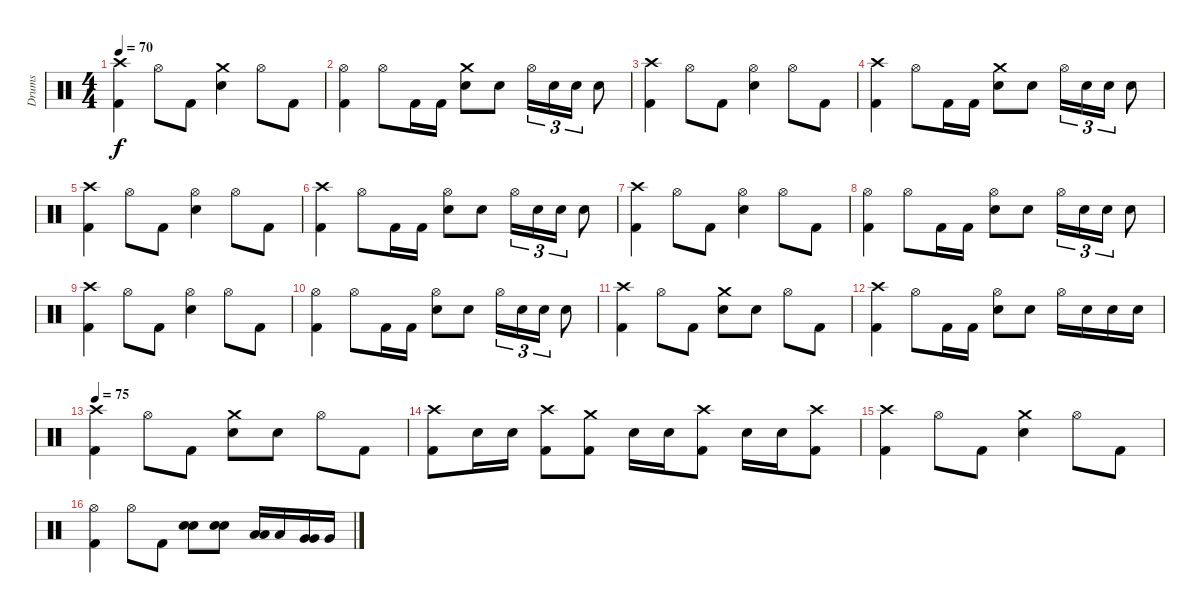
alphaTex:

\track ("Drums" "Drums") {instrument percussion}
\staff {score}
\articulation defaults
\ts (4 4)
\tempo 70
\clef neutral
\ks c
("Crash high (hit)" "Kick (hit) 2").4{dy f} "Hi-Hat (open)".8 "Kick (hit) 2".8 ("Crash medium (hit)" "Electric Snare (hit)").4 "Hi-Hat (open)".8 "Kick (hit) 2".8 |
("Hi-Hat (open)" "Kick (hit) 2").4 "Hi-Hat (open)".8 "Kick (hit) 2".16 "Kick (hit) 2".16 ("Crash medium (hit)" "Electric Snare (hit)").8 "Electric Snare (hit)".8 "Hi-Hat (open)".16{tu (3 2)} "Electric Snare (hit)".16{tu (3 2)} "Electric Snare (hit)".16{tu (3 2)} "Electric Snare (hit)".8 |
("Crash high (hit)" "Kick (hit) 2").4 "Hi-Hat (open)".8 "Kick (hit) 2".8 ("Hi-Hat (open)" "Electric Snare (hit)").4 "Hi-Hat (open)".8 "Kick (hit) 2".8 |
("Crash high (hit)" "Kick (hit) 2").4 "Hi-Hat (open)".8 "Kick (hit) 2".16 "Kick (hit) 2".16 ("Crash medium (hit)" "Electric Snare (hit)").8 "Electric Snare (hit)".8 "Hi-Hat (open)".16{tu (3 2)} "Electric Snare (hit)".16{tu (3 2)} "Electric Snare (hit)".16{tu (3 2)} "Electric Snare (hit)".8 |
("Crash high (hit)" "Kick (hit) 2").4 "Hi-Hat (open)".8 "Kick (hit) 2".8 ("Hi-Hat (open)" "Electric Snare (hit)").4 "Hi-Hat (open)".8 "Kick (hit) 2".8 |
("Crash high (hit)" "Kick (hit) 2").4 "Hi-Hat (open)".8 "Kick (hit) 2".16 "Kick (hit) 2".16 ("Hi-Hat (open)" "Electric Snare (hit)").8 "Electric Snare (hit)".8 "Hi-Hat (open)".16{tu (3 2)} "Electric Snare (hit)".16{tu (3 2)} "Electric Snare (hit)".16{tu (3 2)} "Electric Snare (hit)".8 |
("Crash high (hit)" "Kick (hit) 2").4 "Hi-Hat (open)".8 "Kick (hit) 2".8 ("Hi-Hat (open)" "Electric Snare (hit)").4 "Hi-Hat (open)".8 "Kick (hit) 2".8 |
("Hi-Hat (open)" "Kick (hit) 2").4 "Hi-Hat (open)".8 "Kick (hit) 2".16 "Kick (hit) 2".16 ("Hi-Hat (open)" "Electric Snare (hit)").8 "Electric Snare (hit)".8 "Hi-Hat (open)".16{tu (3 2)} "Electric Snare (hit)".16{tu (3 2)} "Electric Snare (hit)".16{tu (3 2)} "Electric Snare (hit)".8 |
("Crash high (hit)" "Kick (hit) 2").4 "Hi-Hat (open)".8 "Kick (hit) 2".8 ("Hi-Hat (open)" "Electric Snare (hit)").4 "Hi-Hat (open)".8 "Kick (hit) 2".8 |
("Hi-Hat (open)" "Kick (hit) 2").4 "Hi-Hat (open)".8 "Kick (hit) 2".16 "Kick (hit) 2".16 ("Hi-Hat (open)" "Electric Snare (hit)").8 "Electric Snare (hit)".8 "Hi-Hat (open)".16{tu (3 2)} "Electric Snare (hit)".16{tu (3 2)} "Electric Snare (hit)".16{tu (3 2)} "Electric Snare (hit)".8 |
("Crash high (hit)" "Kick (hit) 2").4 "Hi-Hat (open)".8 "Kick (hit) 2".8 ("Crash medium (hit)" "Electric Snare (hit)").8 "Electric Snare (hit)".8 "Hi-Hat (open)".8 "Kick (hit) 2".8 |
("Crash high (hit)" "Kick (hit) 2").4 "Hi-Hat (open)".8 "Kick (hit) 2".16 "Kick (hit) 2".16 ("Hi-Hat (open)" "Electric Snare (hit)").8 "Electric Snare (hit)".8 "Hi-Hat (open)".16 "Electric Snare (hit)".16 "Electric Snare (hit)".16 "Electric Snare (hit)".16 |
\tempo 75
("Crash high (hit)" "Kick (hit) 2").4 "Hi-Hat (open)".8 "Kick (hit) 2".8 ("Crash medium (hit)" "Electric Snare (hit)").8 "Electric Snare (hit)".8 "Hi-Hat (open)".8 "Kick (hit) 2".8 |
("Crash high (hit)" "Kick (hit) 2").8 "Electric Snare (hit)".16 "Electric Snare (hit)".16 ("Crash high (hit)" "Kick (hit) 2").8 ("Crash medium (hit)" "Kick (hit) 2").8 "Electric Snare (hit)".16 "Electric Snare (hit)".16 ("Crash high (hit)" "Kick (hit) 2").8 "Electric Snare (hit)".16 "Electric Snare (hit)".16 ("Crash high (hit)" "Kick (hit) 2").8 |
("Crash high (hit)" "Kick (hit) 2").4 "Hi-Hat (open)".8 "Kick (hit) 2".8 ("Crash medium (hit)" "Electric Snare (hit)").4 "Hi-Hat (open)".8 "Kick (hit) 2".8 |
("Hi-Hat (open)" "Kick (hit) 2").4 "Hi-Hat (open)".8 "Kick (hit) 2".8 ("Electric Snare (hit)" "Electric Snare (hit)").8{bu 30} ("Electric Snare (hit)" "Electric Snare (hit)").8{bu 60} ("Low Tom (hit)" "Low Tom (hit)").16{bu 60} "Low Tom (hit)".16 ("Very Low Tom (hit)" "Very Low Tom (hit)").16{bu 60} "Very Low Tom (hit)".16
